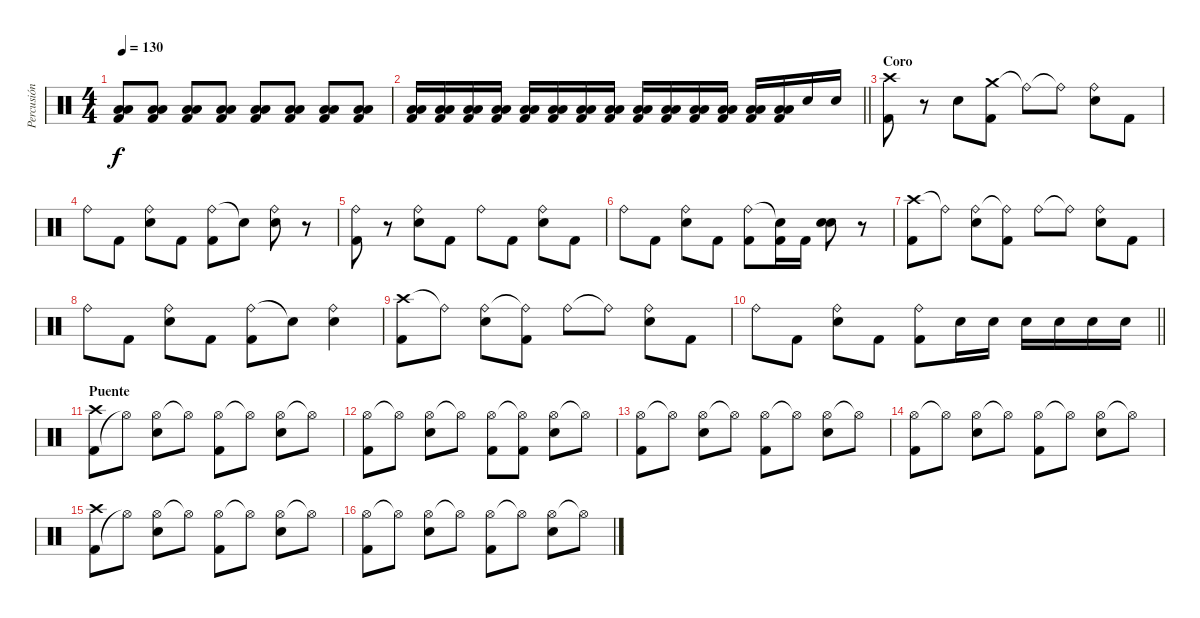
\track ("Percusión" "Percusión") {instrument percussion}
\staff {score}
\articulation defaults
\ts (4 4)
\tempo 130
\clef neutral
\ks c
("Kick (hit) 2" "Low Floor Tom (hit)" "Low Tom (hit)").8{dy f volume 7} ("Kick (hit) 2" "Low Floor Tom (hit)" "Low Tom (hit)").8 ("Kick (hit) 2" "Low Floor Tom (hit)" "Low Tom (hit)").8 ("Kick (hit) 2" "Low Floor Tom (hit)" "Low Tom (hit)").8 ("Kick (hit) 2" "Low Floor Tom (hit)" "Low Tom (hit)").8{volume 8} ("Kick (hit) 2" "Low Floor Tom (hit)" "Low Tom (hit)").8 ("Kick (hit) 2" "Low Floor Tom (hit)" "Low Tom (hit)").8 ("Kick (hit) 2" "Low Floor Tom (hit)" "Low Tom (hit)").8 |
\barLineRight lightlight
("Kick (hit) 2" "Low Floor Tom (hit)" "Low Tom (hit)").16{volume 9} ("Kick (hit) 2" "Low Floor Tom (hit)" "Low Tom (hit)").16 ("Kick (hit) 2" "Low Floor Tom (hit)" "Low Tom (hit)").16 ("Kick (hit) 2" "Low Floor Tom (hit)" "Low Tom (hit)").16 ("Kick (hit) 2" "Low Floor Tom (hit)" "Low Tom (hit)").16 ("Kick (hit) 2" "Low Floor Tom (hit)" "Low Tom (hit)").16 ("Kick (hit) 2" "Low Floor Tom (hit)" "Low Tom (hit)").16 ("Kick (hit) 2" "Low Floor Tom (hit)" "Low Tom (hit)").16 ("Kick (hit) 2" "Low Floor Tom (hit)" "Low Tom (hit)").16{volume 11} ("Kick (hit) 2" "Low Floor Tom (hit)" "Low Tom (hit)").16 ("Kick (hit) 2" "Low Floor Tom (hit)" "Low Tom (hit)").16 ("Kick (hit) 2" "Low Floor Tom (hit)" "Low Tom (hit)").16{volume 13} ("Kick (hit) 2" "Low Floor Tom (hit)" "Low Tom (hit)").16 ("Kick (hit) 2" "Low Floor Tom (hit)" "Low Tom (hit)").16 "Snare (hit) 2".16 "Snare (hit) 2".16 |
\section ("" "Coro")
("Crash high (hit)" "Kick (hit) 2").8 r.8 "Snare (hit) 2".8 ("Crash medium (hit)" "Kick (hit) 2").8 "Ride (bell)"{t}.8 "Ride (bell)"{t}.8 ("Ride (bell)" "Snare (hit) 2").8 "Kick (hit) 2".8 |
"Ride (bell)".8 "Kick (hit) 2".8 ("Ride (bell)" "Snare (hit) 2").8 "Kick (hit) 2".8 ("Ride (bell)" "Kick (hit) 2").8 "Snare (hit)"{t}.8 ("Ride (bell)" "Snare (hit) 2").8 r.8 |
("Ride (bell)" "Kick (hit) 2").8 r.8 ("Ride (bell)" "Snare (hit) 2").8 "Kick (hit) 2".8 "Ride (bell)".8 "Kick (hit) 2".8 ("Ride (bell)" "Snare (hit) 2").8 "Kick (hit) 2".8 |
"Ride (bell)".8 "Kick (hit) 2".8 ("Ride (bell)" "Snare (hit) 2").8 "Kick (hit) 2".8 ("Ride (bell)" "Kick (hit) 2").8 ("Snare (hit)"{t} "Kick (hit) 2").16 "Kick (hit) 2".16 ("Snare (hit) 2" "Snare (hit) 2").8 r.8 |
("Crash high (hit)" "Kick (hit) 2").8 "Ride (bell)"{t}.8 ("Ride (bell)" "Snare (hit) 2").8 ("Ride (bell)"{t} "Kick (hit) 2").8 "Ride (bell)".8 "Ride (bell)"{t}.8 ("Ride (bell)" "Snare (hit) 2").8 "Kick (hit) 2".8 |
"Ride (bell)".8 "Kick (hit) 2".8 ("Ride (bell)" "Snare (hit) 2").8 "Kick (hit) 2".8 ("Ride (bell)" "Kick (hit) 2").8 "Snare (hit)"{t}.8 ("Ride (bell)" "Snare (hit) 2").4 |
("Crash high (hit)" "Kick (hit) 2").8 "Ride (bell)"{t}.8 ("Ride (bell)" "Snare (hit) 2").8 ("Ride (bell)"{t} "Kick (hit) 2").8 "Ride (bell)".8 "Ride (bell)"{t}.8 ("Ride (bell)" "Snare (hit) 2").8 "Kick (hit) 2".8 |
\barLineRight lightlight "Ride (bell)".8 "Kick (hit) 2".8
("Ride (bell)" "Snare (hit) 2").8 "Kick (hit) 2".8 ("Ride (bell)" "Kick (hit) 2").8 "Snare (hit) 2".16 "Snare (hit) 2".16 "Snare (hit) 2".16 "Snare (hit) 2".16 "Snare (hit) 2".16 "Snare (hit) 2".16 |
\section ("" "Puente")
("Kick (hit) 2" "Crash high (hit)").8 "Hi-Hat (open)"{t}.8 ("Hi-Hat (open)" "Snare (hit) 2").8 "Hi-Hat (open)"{t}.8 ("Hi-Hat (open)" "Kick (hit) 2").8 "Hi-Hat (open)"{t}.8 ("Hi-Hat (open)" "Snare (hit) 2").8 "Hi-Hat (open)"{t}.8 |
("Hi-Hat (open)" "Kick (hit) 2").8 "Hi-Hat (open)"{t}.8 ("Hi-Hat (open)" "Snare (hit) 2").8 "Hi-Hat (open)"{t}.8 ("Hi-Hat (open)" "Kick (hit) 2").8 ("Hi-Hat (open)"{t} "Kick (hit) 2").8 ("Hi-Hat (open)" "Snare (hit) 2").8 "Hi-Hat (open)"{t}.8 |
("Hi-Hat (open)" "Kick (hit) 2").8 "Hi-Hat (open)"{t}.8 ("Hi-Hat (open)" "Snare (hit) 2").8 "Hi-Hat (open)"{t}.8 ("Hi-Hat (open)" "Kick (hit) 2").8 "Hi-Hat (open)"{t}.8 ("Hi-Hat (open)" "Snare (hit) 2").8 "Hi-Hat (open)"{t}.8 |
("Hi-Hat (open)" "Kick (hit) 2").8 "Hi-Hat (open)"{t}.8 ("Hi-Hat (open)" "Snare (hit) 2").8 "Hi-Hat (open)"{t}.8 ("Hi-Hat (open)" "Kick (hit) 2").8 "Hi-Hat (open)"{t}.8 ("Hi-Hat (open)" "Snare (hit) 2").8 "Hi-Hat (open)"{t}.8 |
("Kick (hit) 2" "Crash high (hit)").8 "Hi-Hat (open)"{t}.8 ("Hi-Hat (open)" "Snare (hit) 2").8 "Hi-Hat (open)"{t}.8 ("Hi-Hat (open)" "Kick (hit) 2").8 "Hi-Hat (open)"{t}.8 ("Hi-Hat (open)" "Snare (hit) 2").8 "Hi-Hat (open)"{t}.8 |
("Hi-Hat (open)" "Kick (hit) 2").8 "Hi-Hat (open)"{t}.8 ("Hi-Hat (open)" "Snare (hit) 2").8 "Hi-Hat (open)"{t}.8 ("Hi-Hat (open)" "Kick (hit) 2").8 "Hi-Hat (open)"{t}.8 ("Hi-Hat (open)" "Snare (hit) 2").8 "Hi-Hat (open)"{t}.8
